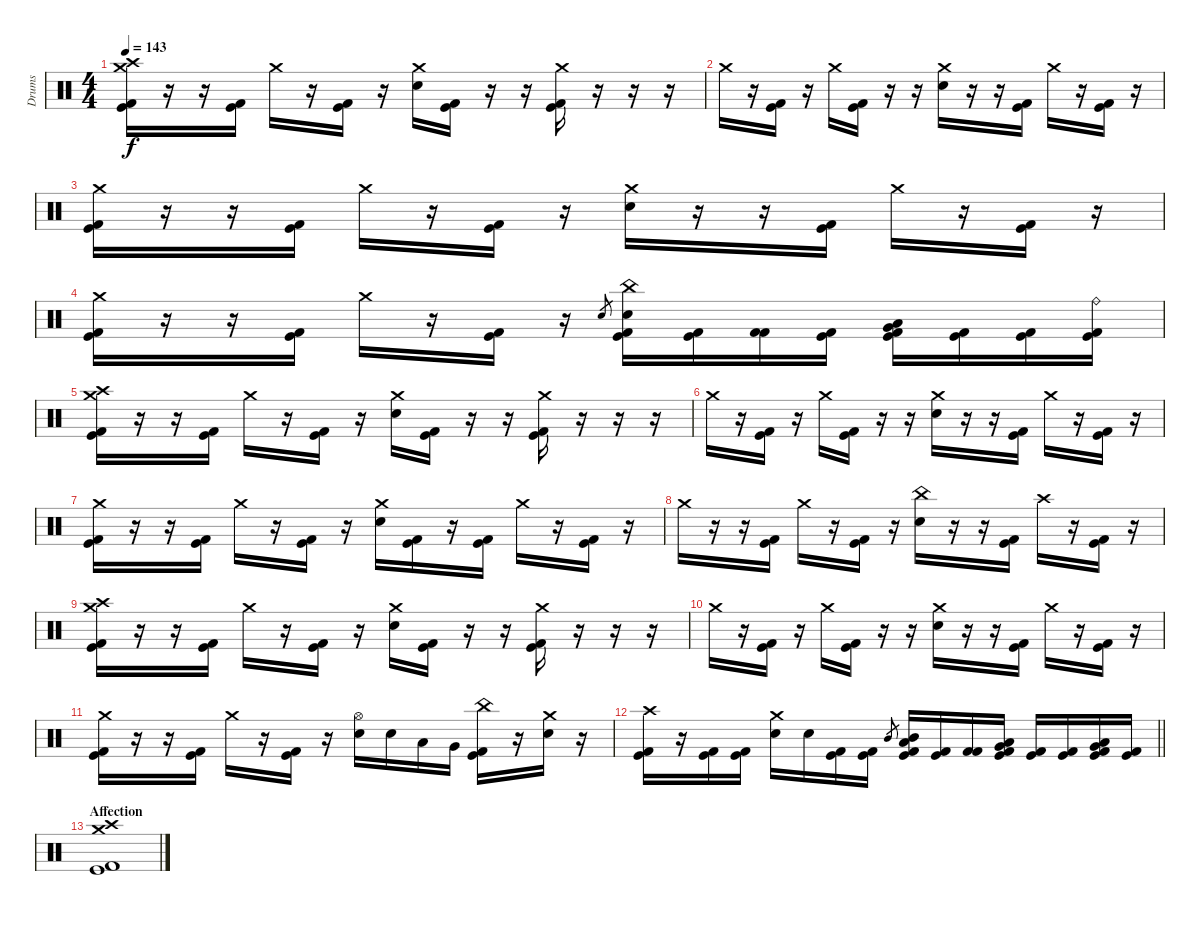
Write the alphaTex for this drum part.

\track ("Drums" "Drums") {instrument percussion}
\staff {score}
\articulation defaults
\ts (4 4)
\tempo 143
\clef neutral
\ks c
("Crash medium (hit)" "Crash high (hit)" "Kick (hit)" "Kick (hit) 2").16{dy f} r.16 r.16 ("Kick (hit)" "Kick (hit) 2").16 "Crash medium (hit)".16 r.16 ("Kick (hit)" "Kick (hit) 2").16 r.16 ("Crash medium (hit)" "Electric Snare (hit)").16 ("Kick (hit)" "Kick (hit) 2").16 r.16 r.16 ("Crash medium (hit)" "Kick (hit)" "Kick (hit) 2").16 r.16 r.16 r.16 |
"Crash medium (hit)".16 r.16 ("Kick (hit)" "Kick (hit) 2").16 r.16 "Crash medium (hit)".16 ("Kick (hit)" "Kick (hit) 2").16 r.16 r.16 ("Crash medium (hit)" "Electric Snare (hit)").16 r.16 r.16 ("Kick (hit)" "Kick (hit) 2").16 "Crash medium (hit)".16 r.16 ("Kick (hit)" "Kick (hit) 2").16 r.16 |
("Crash medium (hit)" "Kick (hit)" "Kick (hit) 2").16 r.16 r.16 ("Kick (hit)" "Kick (hit) 2").16 "Crash medium (hit)".16 r.16 ("Kick (hit)" "Kick (hit) 2").16 r.16 ("Crash medium (hit)" "Electric Snare (hit)").16 r.16 r.16 ("Kick (hit)" "Kick (hit) 2").16 "Crash medium (hit)".16 r.16 ("Kick (hit)" "Kick (hit) 2").16 r.16 |
("Crash medium (hit)" "Kick (hit)" "Kick (hit) 2").16 r.16 r.16 ("Kick (hit)" "Kick (hit) 2").16 "Crash medium (hit)".16 r.16 ("Kick (hit)" "Kick (hit) 2").16 r.16 "Electric Snare (hit)".8{gr} ("China (hit)" "Electric Snare (hit)" "Kick (hit)" "Kick (hit) 2").16 ("Kick (hit)" "Kick (hit) 2").16 ("Kick (hit) 2" "Kick (hit) 2").16 ("Kick (hit)" "Kick (hit) 2").16 ("Low Floor Tom (hit)" "Very Low Tom (hit)" "Kick (hit)" "Kick (hit) 2").16 ("Kick (hit)" "Kick (hit) 2").16 ("Kick (hit)" "Kick (hit) 2").16 ("Ride (bell)" "Kick (hit)" "Kick (hit) 2").16 |
("Crash medium (hit)" "Crash high (hit)" "Kick (hit)" "Kick (hit) 2").16 r.16 r.16 ("Kick (hit)" "Kick (hit) 2").16 "Crash medium (hit)".16 r.16 ("Kick (hit)" "Kick (hit) 2").16 r.16 ("Crash medium (hit)" "Electric Snare (hit)").16 ("Kick (hit)" "Kick (hit) 2").16 r.16 r.16 ("Crash medium (hit)" "Kick (hit)" "Kick (hit) 2").16 r.16 r.16 r.16 |
"Crash medium (hit)".16 r.16 ("Kick (hit)" "Kick (hit) 2").16 r.16 "Crash medium (hit)".16 ("Kick (hit)" "Kick (hit) 2").16 r.16 r.16 ("Crash medium (hit)" "Electric Snare (hit)").16 r.16 r.16 ("Kick (hit)" "Kick (hit) 2").16 "Crash medium (hit)".16 r.16 ("Kick (hit)" "Kick (hit) 2").16 r.16 |
("Crash medium (hit)" "Kick (hit)" "Kick (hit) 2").16 r.16 r.16 ("Kick (hit)" "Kick (hit) 2").16 "Crash medium (hit)".16 r.16 ("Kick (hit)" "Kick (hit) 2").16 r.16 ("Crash medium (hit)" "Electric Snare (hit)").16 ("Kick (hit)" "Kick (hit) 2").16 r.16 ("Kick (hit)" "Kick (hit) 2").16 "Crash medium (hit)".16 r.16 ("Kick (hit)" "Kick (hit) 2").16 r.16 |
"Crash medium (hit)".16 r.16 r.16 ("Kick (hit)" "Kick (hit) 2").16 "Crash medium (hit)".16 r.16 ("Kick (hit)" "Kick (hit) 2").16 r.16 ("China (hit)" "Electric Snare (hit)").16 r.16 r.16 ("Kick (hit)" "Kick (hit) 2").16 "Crash high (hit)".16 r.16 ("Kick (hit)" "Kick (hit) 2").16 r.16 |
("Crash medium (hit)" "Crash high (hit)" "Kick (hit)" "Kick (hit) 2").16 r.16 r.16 ("Kick (hit)" "Kick (hit) 2").16 "Crash medium (hit)".16 r.16 ("Kick (hit)" "Kick (hit) 2").16 r.16 ("Crash medium (hit)" "Electric Snare (hit)").16 ("Kick (hit)" "Kick (hit) 2").16 r.16 r.16 ("Crash medium (hit)" "Kick (hit)" "Kick (hit) 2").16 r.16 r.16 r.16 |
"Crash medium (hit)".16 r.16 ("Kick (hit)" "Kick (hit) 2").16 r.16 "Crash medium (hit)".16 ("Kick (hit)" "Kick (hit) 2").16 r.16 r.16 ("Crash medium (hit)" "Electric Snare (hit)").16 r.16 r.16 ("Kick (hit)" "Kick (hit) 2").16 "Crash medium (hit)".16 r.16 ("Kick (hit)" "Kick (hit) 2").16 r.16 |
("Crash medium (hit)" "Kick (hit)" "Kick (hit) 2").16 r.16 r.16 ("Kick (hit)" "Kick (hit) 2").16 "Crash medium (hit)".16 r.16 ("Kick (hit)" "Kick (hit) 2").16 r.16 ("Hi-Hat (open)" "Electric Snare (hit)").16 "Electric Snare (hit)".16 "Low Tom (hit)".16 "Very Low Tom (hit)".16 ("China (hit)" "Kick (hit)" "Kick (hit) 2").16 r.16 ("Crash medium (hit)" "Electric Snare (hit)").16 r.16 |
\barLineRight lightlight
("Crash high (hit)" "Kick (hit)" "Kick (hit) 2").16 r.16 ("Kick (hit)" "Kick (hit) 2").16 ("Kick (hit)" "Kick (hit) 2").16 ("Crash medium (hit)" "Electric Snare (hit)").16 "Electric Snare (hit)".16 ("Kick (hit)" "Kick (hit) 2").16 ("Kick (hit)" "Kick (hit) 2").16 "Mid Tom (hit)".8{gr} ("Mid Tom (hit)" "Low Tom (hit)" "Kick (hit)" "Kick (hit) 2").16 ("Kick (hit)" "Kick (hit) 2").16 ("Kick (hit) 2" "Kick (hit) 2").16 ("Low Tom (hit)" "Very Low Tom (hit)" "Kick (hit)" "Kick (hit) 2").16 ("Kick (hit)" "Kick (hit) 2").16 ("Kick (hit)" "Kick (hit) 2").16 ("Low Floor Tom (hit)" "Very Low Tom (hit)" "Kick (hit)" "Kick (hit) 2").16 ("Kick (hit)" "Kick (hit) 2").16 |
\section ("" "Affection")
("Crash medium (hit)" "Crash high (hit)" "Kick (hit)" "Kick (hit) 2").1
